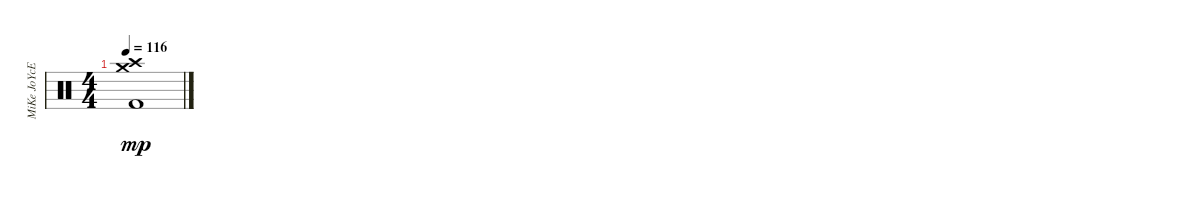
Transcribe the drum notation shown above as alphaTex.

\track ("MiKe JoYcE" "MiKe JoYcE") {instrument percussion}
\staff {score}
\articulation defaults
\ts (4 4)
\tempo 116
\clef neutral
\ks c
("Crash high (hit)" "Crash medium (hit)" "Kick (hit) 2").1{dy mp}
